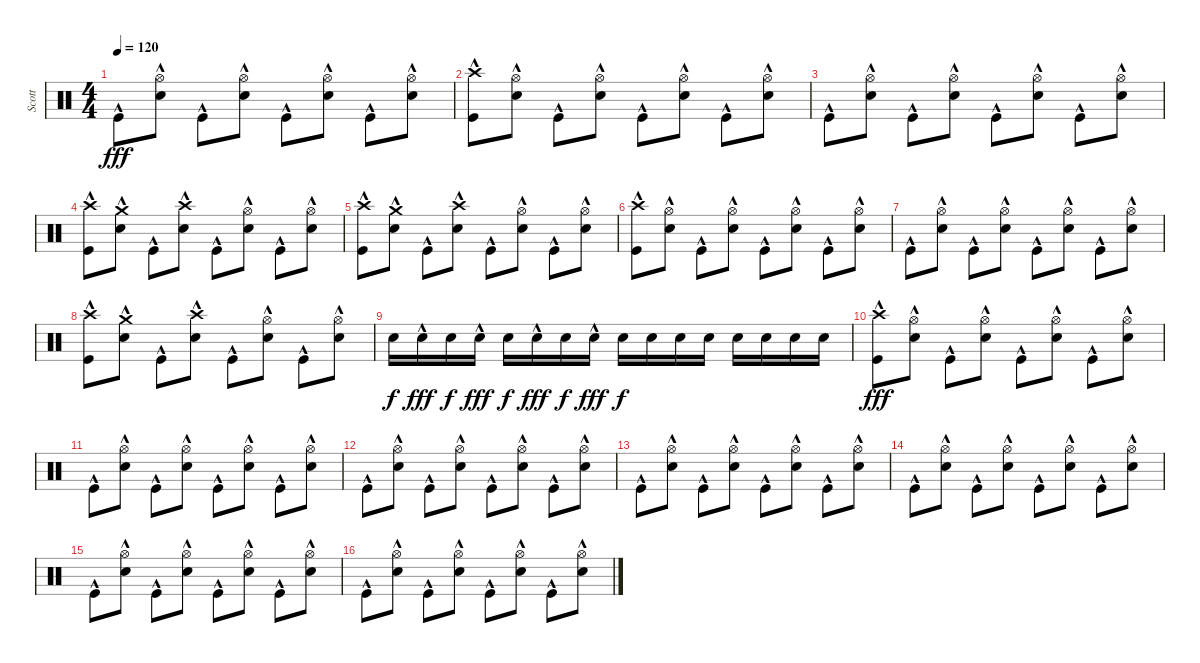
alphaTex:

\track ("Scott" "Scott") {instrument percussion}
\staff {score}
\articulation defaults
\ts (4 4)
\tempo 120
\clef neutral
\ks c "Kick (hit)"{hac}.8{dy fff}
("Hi-Hat (open)"{hac} "Electric Snare (hit)"{hac}).8 "Kick (hit)"{hac}.8 ("Hi-Hat (open)"{hac} "Electric Snare (hit)"{hac}).8 "Kick (hit)"{hac}.8 ("Hi-Hat (open)"{hac} "Electric Snare (hit)"{hac}).8 "Kick (hit)"{hac}.8 ("Hi-Hat (open)"{hac} "Electric Snare (hit)"{hac}).8 |
("Crash high (hit)"{hac} "Kick (hit)"{hac}).8 ("Hi-Hat (open)"{hac} "Electric Snare (hit)"{hac}).8 "Kick (hit)"{hac}.8 ("Hi-Hat (open)"{hac} "Electric Snare (hit)"{hac}).8 "Kick (hit)"{hac}.8 ("Hi-Hat (open)"{hac} "Electric Snare (hit)"{hac}).8 "Kick (hit)"{hac}.8 ("Hi-Hat (open)"{hac} "Electric Snare (hit)"{hac}).8 |
"Kick (hit)"{hac}.8 ("Hi-Hat (open)"{hac} "Electric Snare (hit)"{hac}).8 "Kick (hit)"{hac}.8 ("Hi-Hat (open)"{hac} "Electric Snare (hit)"{hac}).8 "Kick (hit)"{hac}.8 ("Hi-Hat (open)"{hac} "Electric Snare (hit)"{hac}).8 "Kick (hit)"{hac}.8 ("Hi-Hat (open)"{hac} "Electric Snare (hit)"{hac}).8 |
("Crash high (hit)"{hac} "Kick (hit)"{hac}).8 ("Crash medium (hit)"{hac} "Electric Snare (hit)"{hac}).8 "Kick (hit)"{hac}.8 ("Crash high (hit)"{hac} "Electric Snare (hit)"{hac}).8 "Kick (hit)"{hac}.8 ("Hi-Hat (open)"{hac} "Electric Snare (hit)"{hac}).8 "Kick (hit)"{hac}.8 ("Hi-Hat (open)"{hac} "Electric Snare (hit)"{hac}).8 |
("Crash high (hit)"{hac} "Kick (hit)"{hac}).8 ("Crash medium (hit)"{hac} "Electric Snare (hit)"{hac}).8 "Kick (hit)"{hac}.8 ("Crash high (hit)"{hac} "Electric Snare (hit)"{hac}).8 "Kick (hit)"{hac}.8 ("Hi-Hat (open)"{hac} "Electric Snare (hit)"{hac}).8 "Kick (hit)"{hac}.8 ("Hi-Hat (open)"{hac} "Electric Snare (hit)"{hac}).8 |
("Crash high (hit)"{hac} "Kick (hit)"{hac}).8 ("Hi-Hat (open)"{hac} "Electric Snare (hit)"{hac}).8 "Kick (hit)"{hac}.8 ("Hi-Hat (open)"{hac} "Electric Snare (hit)"{hac}).8 "Kick (hit)"{hac}.8 ("Hi-Hat (open)"{hac} "Electric Snare (hit)"{hac}).8 "Kick (hit)"{hac}.8 ("Hi-Hat (open)"{hac} "Electric Snare (hit)"{hac}).8 |
"Kick (hit)"{hac}.8 ("Hi-Hat (open)"{hac} "Electric Snare (hit)"{hac}).8 "Kick (hit)"{hac}.8 ("Hi-Hat (open)"{hac} "Electric Snare (hit)"{hac}).8 "Kick (hit)"{hac}.8 ("Hi-Hat (open)"{hac} "Electric Snare (hit)"{hac}).8 "Kick (hit)"{hac}.8 ("Hi-Hat (open)"{hac} "Electric Snare (hit)"{hac}).8 |
("Crash high (hit)"{hac} "Kick (hit)"{hac}).8 ("Crash medium (hit)"{hac} "Electric Snare (hit)"{hac}).8 "Kick (hit)"{hac}.8 ("Crash high (hit)"{hac} "Electric Snare (hit)"{hac}).8 "Kick (hit)"{hac}.8 ("Hi-Hat (open)"{hac} "Electric Snare (hit)"{hac}).8 "Kick (hit)"{hac}.8 ("Hi-Hat (open)"{hac} "Electric Snare (hit)"{hac}).8 |
"Electric Snare (hit)".16{dy f} "Electric Snare (hit)"{hac}.16{dy fff} "Electric Snare (hit)".16{dy f} "Electric Snare (hit)"{hac}.16{dy fff} "Electric Snare (hit)".16{dy f} "Electric Snare (hit)"{hac}.16{dy fff} "Electric Snare (hit)".16{dy f} "Electric Snare (hit)"{hac}.16{dy fff} "Electric Snare (hit)".16{dy f} "Electric Snare (hit)".16 "Electric Snare (hit)".16 "Electric Snare (hit)".16 "Electric Snare (hit)".16 "Electric Snare (hit)".16 "Electric Snare (hit)".16 "Electric Snare (hit)".16 |
("Crash high (hit)"{hac} "Kick (hit)"{hac}).8{dy fff} ("Hi-Hat (open)"{hac} "Electric Snare (hit)"{hac}).8 "Kick (hit)"{hac}.8 ("Hi-Hat (open)"{hac} "Electric Snare (hit)"{hac}).8 "Kick (hit)"{hac}.8 ("Hi-Hat (open)"{hac} "Electric Snare (hit)"{hac}).8 "Kick (hit)"{hac}.8 ("Hi-Hat (open)"{hac} "Electric Snare (hit)"{hac}).8 |
"Kick (hit)"{hac}.8 ("Hi-Hat (open)"{hac} "Electric Snare (hit)"{hac}).8 "Kick (hit)"{hac}.8 ("Hi-Hat (open)"{hac} "Electric Snare (hit)"{hac}).8 "Kick (hit)"{hac}.8 ("Hi-Hat (open)"{hac} "Electric Snare (hit)"{hac}).8 "Kick (hit)"{hac}.8 ("Hi-Hat (open)"{hac} "Electric Snare (hit)"{hac}).8 |
"Kick (hit)"{hac}.8 ("Hi-Hat (open)"{hac} "Electric Snare (hit)"{hac}).8 "Kick (hit)"{hac}.8 ("Hi-Hat (open)"{hac} "Electric Snare (hit)"{hac}).8 "Kick (hit)"{hac}.8 ("Hi-Hat (open)"{hac} "Electric Snare (hit)"{hac}).8 "Kick (hit)"{hac}.8 ("Hi-Hat (open)"{hac} "Electric Snare (hit)"{hac}).8 |
"Kick (hit)"{hac}.8 ("Hi-Hat (open)"{hac} "Electric Snare (hit)"{hac}).8 "Kick (hit)"{hac}.8 ("Hi-Hat (open)"{hac} "Electric Snare (hit)"{hac}).8 "Kick (hit)"{hac}.8 ("Hi-Hat (open)"{hac} "Electric Snare (hit)"{hac}).8 "Kick (hit)"{hac}.8 ("Hi-Hat (open)"{hac} "Electric Snare (hit)"{hac}).8 |
"Kick (hit)"{hac}.8 ("Hi-Hat (open)"{hac} "Electric Snare (hit)"{hac}).8 "Kick (hit)"{hac}.8 ("Hi-Hat (open)"{hac} "Electric Snare (hit)"{hac}).8 "Kick (hit)"{hac}.8 ("Hi-Hat (open)"{hac} "Electric Snare (hit)"{hac}).8 "Kick (hit)"{hac}.8 ("Hi-Hat (open)"{hac} "Electric Snare (hit)"{hac}).8 |
"Kick (hit)"{hac}.8 ("Hi-Hat (open)"{hac} "Electric Snare (hit)"{hac}).8 "Kick (hit)"{hac}.8 ("Hi-Hat (open)"{hac} "Electric Snare (hit)"{hac}).8 "Kick (hit)"{hac}.8 ("Hi-Hat (open)"{hac} "Electric Snare (hit)"{hac}).8 "Kick (hit)"{hac}.8 ("Hi-Hat (open)"{hac} "Electric Snare (hit)"{hac}).8 |
"Kick (hit)"{hac}.8 ("Hi-Hat (open)"{hac} "Electric Snare (hit)"{hac}).8 "Kick (hit)"{hac}.8 ("Hi-Hat (open)"{hac} "Electric Snare (hit)"{hac}).8 "Kick (hit)"{hac}.8 ("Hi-Hat (open)"{hac} "Electric Snare (hit)"{hac}).8 "Kick (hit)"{hac}.8 ("Hi-Hat (open)"{hac} "Electric Snare (hit)"{hac}).8
